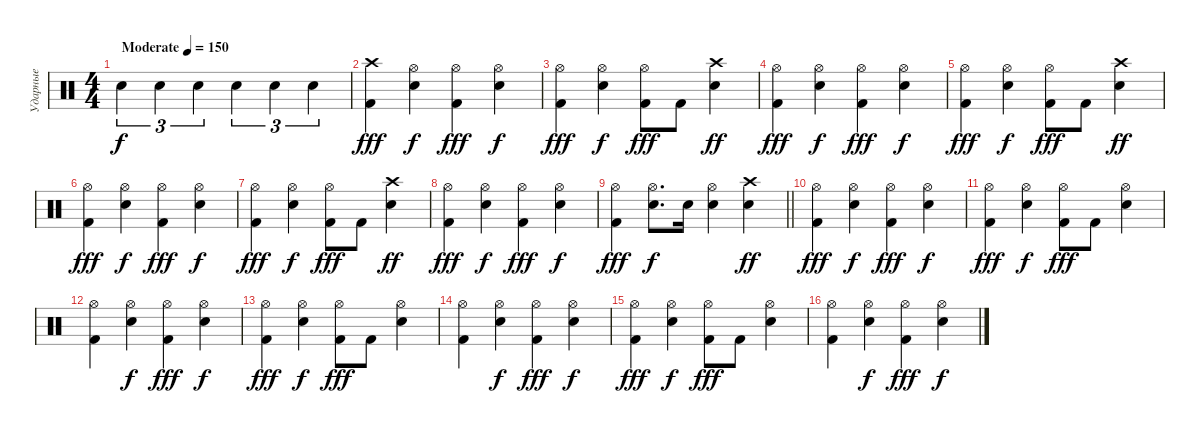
\track ("Ударные" "Ударные") {instrument percussion}
\staff {score}
\articulation defaults
\ts (4 4)
\tempo (150 "Moderate")
\clef neutral
\ks c "Snare (hit) 2".4{tu (3 2) dy f} "Snare (hit) 2".4{tu (3 2)} "Snare (hit) 2".4{tu (3 2)} "Snare (hit) 2".4{tu (3 2)} "Snare (hit) 2".4{tu (3 2)} "Snare (hit) 2".4{tu (3 2)}
|
("Kick (hit) 2" "Crash high (hit)").4{dy fff} ("Snare (hit) 2" "Hi-Hat (open)").4{dy f} ("Kick (hit) 2" "Hi-Hat (open)").4{dy fff} ("Snare (hit) 2" "Hi-Hat (open)").4{dy f} |
("Kick (hit) 2" "Hi-Hat (open)").4{dy fff} ("Snare (hit) 2" "Hi-Hat (open)").4{dy f} ("Kick (hit) 2" "Hi-Hat (open)").8{dy fff} "Kick (hit) 2".8 ("Snare (hit) 2" "Crash high (hit)").4{dy ff} |
("Kick (hit) 2" "Hi-Hat (open)").4{dy fff} ("Snare (hit) 2" "Hi-Hat (open)").4{dy f} ("Kick (hit) 2" "Hi-Hat (open)").4{dy fff} ("Snare (hit) 2" "Hi-Hat (open)").4{dy f} |
("Kick (hit) 2" "Hi-Hat (open)").4{dy fff} ("Snare (hit) 2" "Hi-Hat (open)").4{dy f} ("Kick (hit) 2" "Hi-Hat (open)").8{dy fff} "Kick (hit) 2".8 ("Snare (hit) 2" "Crash high (hit)").4{dy ff} |
("Kick (hit) 2" "Hi-Hat (open)").4{dy fff} ("Snare (hit) 2" "Hi-Hat (open)").4{dy f} ("Kick (hit) 2" "Hi-Hat (open)").4{dy fff} ("Snare (hit) 2" "Hi-Hat (open)").4{dy f} |
("Kick (hit) 2" "Hi-Hat (open)").4{dy fff} ("Snare (hit) 2" "Hi-Hat (open)").4{dy f} ("Kick (hit) 2" "Hi-Hat (open)").8{dy fff} "Kick (hit) 2".8 ("Snare (hit) 2" "Crash high (hit)").4{dy ff} |
("Kick (hit) 2" "Hi-Hat (open)").4{dy fff} ("Snare (hit) 2" "Hi-Hat (open)").4{dy f} ("Kick (hit) 2" "Hi-Hat (open)").4{dy fff} ("Snare (hit) 2" "Hi-Hat (open)").4{dy f} |
\barLineRight lightlight
("Kick (hit) 2" "Hi-Hat (open)").4{dy fff} ("Snare (hit) 2" "Hi-Hat (open)").8{d dy f} "Snare (hit) 2".16 ("Snare (hit) 2" "Hi-Hat (open)").4 ("Snare (hit) 2" "Crash high (hit)").4{dy ff} |
("Kick (hit) 2" "Hi-Hat (open)").4{dy fff} ("Snare (hit) 2" "Hi-Hat (open)").4{dy f} ("Kick (hit) 2" "Hi-Hat (open)").4{dy fff} ("Snare (hit) 2" "Hi-Hat (open)").4{dy f} |
("Kick (hit) 2" "Hi-Hat (open)").4{dy fff} ("Snare (hit) 2" "Hi-Hat (open)").4{dy f} ("Kick (hit) 2" "Hi-Hat (open)").8{dy fff} "Kick (hit) 2".8 ("Snare (hit) 2" "Hi-Hat (open)").4 |
("Kick (hit) 2" "Hi-Hat (open)").4 ("Snare (hit) 2" "Hi-Hat (open)").4{dy f} ("Kick (hit) 2" "Hi-Hat (open)").4{dy fff} ("Snare (hit) 2" "Hi-Hat (open)").4{dy f} |
("Kick (hit) 2" "Hi-Hat (open)").4{dy fff} ("Snare (hit) 2" "Hi-Hat (open)").4{dy f} ("Kick (hit) 2" "Hi-Hat (open)").8{dy fff} "Kick (hit) 2".8 ("Snare (hit) 2" "Hi-Hat (open)").4 |
("Kick (hit) 2" "Hi-Hat (open)").4 ("Snare (hit) 2" "Hi-Hat (open)").4{dy f} ("Kick (hit) 2" "Hi-Hat (open)").4{dy fff} ("Snare (hit) 2" "Hi-Hat (open)").4{dy f} |
("Kick (hit) 2" "Hi-Hat (open)").4{dy fff} ("Snare (hit) 2" "Hi-Hat (open)").4{dy f} ("Kick (hit) 2" "Hi-Hat (open)").8{dy fff} "Kick (hit) 2".8 ("Snare (hit) 2" "Hi-Hat (open)").4 |
("Kick (hit) 2" "Hi-Hat (open)").4 ("Snare (hit) 2" "Hi-Hat (open)").4{dy f} ("Kick (hit) 2" "Hi-Hat (open)").4{dy fff} ("Snare (hit) 2" "Hi-Hat (open)").4{dy f}
